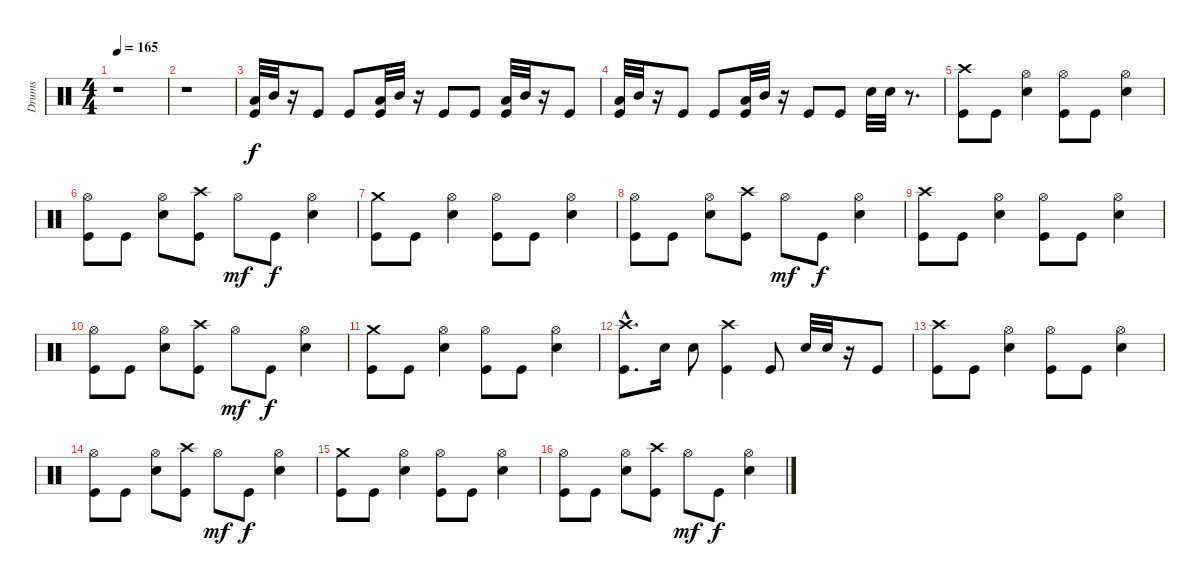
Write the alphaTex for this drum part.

\track ("Drums" "Drums") {instrument percussion}
\staff {score}
\articulation defaults
\ts (4 4)
\tempo 165
\clef neutral
\ks c
r.1{dy f} |
r.1 |
("Low Tom (hit)" "Kick (hit)").32 "Mid Tom (hit)".32 r.16 "Kick (hit)".8 "Kick (hit)".8 ("Low Tom (hit)" "Kick (hit)").32 "Mid Tom (hit)".32 r.16 "Kick (hit)".8 "Kick (hit)".8 ("Low Tom (hit)" "Kick (hit)").32 "Mid Tom (hit)".32 r.16 "Kick (hit)".8 |
("Low Tom (hit)" "Kick (hit)").32 "Mid Tom (hit)".32 r.16 "Kick (hit)".8 "Kick (hit)".8 ("Low Tom (hit)" "Kick (hit)").32 "Mid Tom (hit)".32 r.16 "Kick (hit)".8 "Kick (hit)".8 "Snare (hit) 2".32 "Snare (hit) 2".32 r.8{d} |
("Crash high (hit)" "Kick (hit)").8 "Kick (hit)".8 ("Hi-Hat (open)" "Snare (hit) 2").4 ("Hi-Hat (open)" "Kick (hit)").8 "Kick (hit)".8 ("Hi-Hat (open)" "Snare (hit) 2").4 |
("Hi-Hat (open)" "Kick (hit)").8 "Kick (hit)".8 ("Hi-Hat (open)" "Snare (hit) 2").8 ("Crash high (hit)" "Kick (hit)").8 "Hi-Hat (open)".8{dy mf} "Kick (hit)".8{dy f} ("Hi-Hat (open)" "Snare (hit) 2").4 |
("Crash medium (hit)" "Kick (hit)").8 "Kick (hit)".8 ("Hi-Hat (open)" "Snare (hit) 2").4 ("Hi-Hat (open)" "Kick (hit)").8 "Kick (hit)".8 ("Hi-Hat (open)" "Snare (hit) 2").4 |
("Hi-Hat (open)" "Kick (hit)").8 "Kick (hit)".8 ("Hi-Hat (open)" "Snare (hit) 2").8 ("Crash high (hit)" "Kick (hit)").8 "Hi-Hat (open)".8{dy mf} "Kick (hit)".8{dy f} ("Hi-Hat (open)" "Snare (hit) 2").4 |
("Crash high (hit)" "Kick (hit)").8 "Kick (hit)".8 ("Hi-Hat (open)" "Snare (hit) 2").4 ("Hi-Hat (open)" "Kick (hit)").8 "Kick (hit)".8 ("Hi-Hat (open)" "Snare (hit) 2").4 |
("Hi-Hat (open)" "Kick (hit)").8 "Kick (hit)".8 ("Hi-Hat (open)" "Snare (hit) 2").8 ("Crash high (hit)" "Kick (hit)").8 "Hi-Hat (open)".8{dy mf} "Kick (hit)".8{dy f} ("Hi-Hat (open)" "Snare (hit) 2").4 |
("Crash medium (hit)" "Kick (hit)").8 "Kick (hit)".8 ("Hi-Hat (open)" "Snare (hit) 2").4 ("Hi-Hat (open)" "Kick (hit)").8 "Kick (hit)".8 ("Hi-Hat (open)" "Snare (hit) 2").4 |
("Crash high (hit)"{hac} "Kick (hit)"{hac}).8{d} "Snare (hit) 2".16 "Snare (hit) 2".8 ("Crash high (hit)" "Kick (hit)").4 "Kick (hit)".8 "Snare (hit) 2".32 "Snare (hit) 2".32 r.16 "Kick (hit)".8 |
("Crash high (hit)" "Kick (hit)").8 "Kick (hit)".8 ("Hi-Hat (open)" "Snare (hit) 2").4 ("Hi-Hat (open)" "Kick (hit)").8 "Kick (hit)".8 ("Hi-Hat (open)" "Snare (hit) 2").4 |
("Hi-Hat (open)" "Kick (hit)").8 "Kick (hit)".8 ("Hi-Hat (open)" "Snare (hit) 2").8 ("Crash high (hit)" "Kick (hit)").8 "Hi-Hat (open)".8{dy mf} "Kick (hit)".8{dy f} ("Hi-Hat (open)" "Snare (hit) 2").4 |
("Crash medium (hit)" "Kick (hit)").8 "Kick (hit)".8 ("Hi-Hat (open)" "Snare (hit) 2").4 ("Hi-Hat (open)" "Kick (hit)").8 "Kick (hit)".8 ("Hi-Hat (open)" "Snare (hit) 2").4 |
("Hi-Hat (open)" "Kick (hit)").8 "Kick (hit)".8 ("Hi-Hat (open)" "Snare (hit) 2").8 ("Crash high (hit)" "Kick (hit)").8 "Hi-Hat (open)".8{dy mf} "Kick (hit)".8{dy f} ("Hi-Hat (open)" "Snare (hit) 2").4
